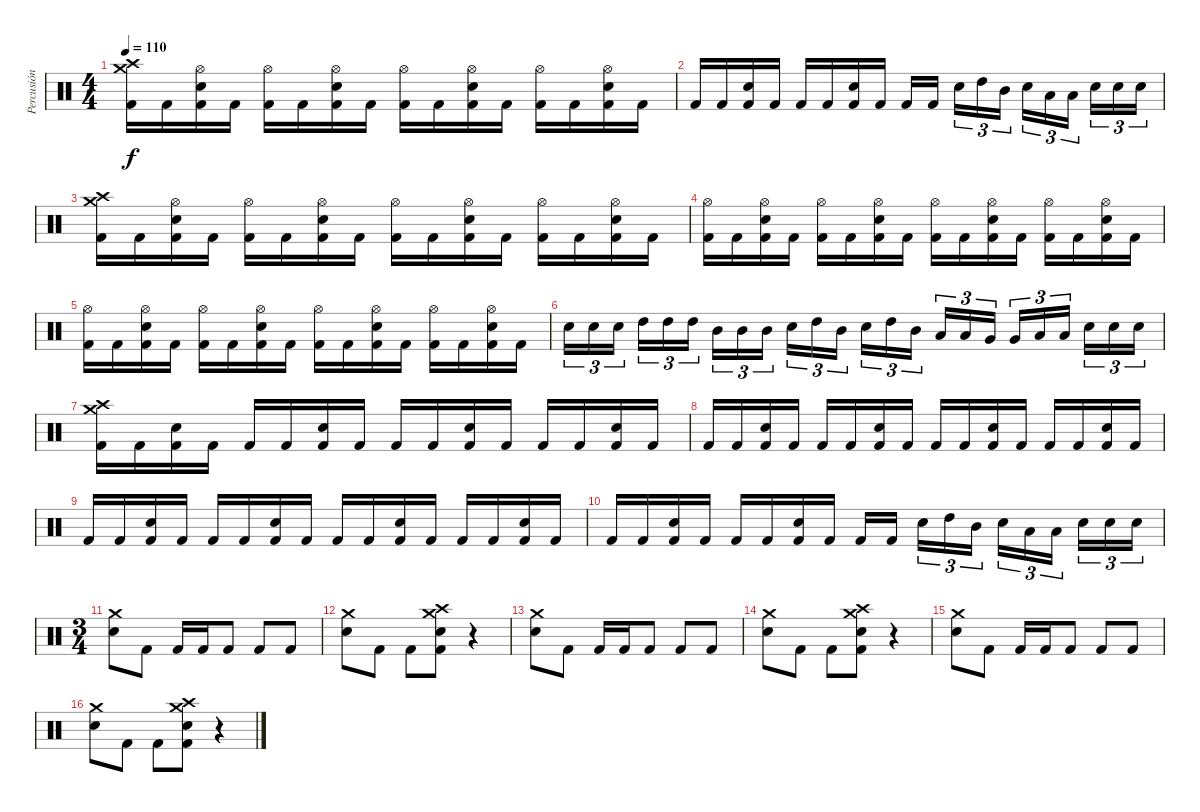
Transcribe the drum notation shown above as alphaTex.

\track ("Percusión" "Percusión") {instrument percussion}
\staff {score}
\articulation defaults
\ts (4 4)
\tempo 110
\clef neutral
\ks c
("Crash high (hit)" "Crash medium (hit)" "Kick (hit) 2").16{dy f} "Kick (hit) 2".16 ("Hi-Hat (open)" "Electric Snare (hit)" "Kick (hit) 2").16 "Kick (hit) 2".16 ("Hi-Hat (open)" "Kick (hit) 2").16 "Kick (hit) 2".16 ("Hi-Hat (open)" "Electric Snare (hit)" "Kick (hit) 2").16 "Kick (hit) 2".16 ("Hi-Hat (open)" "Kick (hit) 2").16 "Kick (hit) 2".16 ("Hi-Hat (open)" "Electric Snare (hit)" "Kick (hit) 2").16 "Kick (hit) 2".16 ("Hi-Hat (open)" "Kick (hit) 2").16 "Kick (hit) 2".16 ("Hi-Hat (open)" "Electric Snare (hit)" "Kick (hit) 2").16 "Kick (hit) 2".16 |
"Kick (hit) 2".16 "Kick (hit) 2".16 ("Electric Snare (hit)" "Kick (hit) 2").16 "Kick (hit) 2".16 "Kick (hit) 2".16 "Kick (hit) 2".16 ("Electric Snare (hit)" "Kick (hit) 2").16 "Kick (hit) 2".16 "Kick (hit) 2".16 "Kick (hit) 2".16 "Electric Snare (hit)".16{tu (3 2)} "High Tom (hit)".16{tu (3 2)} "Mid Tom (hit)".16{tu (3 2)} "Electric Snare (hit)".16{tu (3 2)} "Low Tom (hit)".16{tu (3 2)} "Low Tom (hit)".16{tu (3 2)} "Electric Snare (hit)".16{tu (3 2)} "Electric Snare (hit)".16{tu (3 2)} "Electric Snare (hit)".16{tu (3 2)} |
("Crash high (hit)" "Crash medium (hit)" "Kick (hit) 2").16 "Kick (hit) 2".16 ("Hi-Hat (open)" "Electric Snare (hit)" "Kick (hit) 2").16 "Kick (hit) 2".16 ("Hi-Hat (open)" "Kick (hit) 2").16 "Kick (hit) 2".16 ("Hi-Hat (open)" "Electric Snare (hit)" "Kick (hit) 2").16 "Kick (hit) 2".16 ("Hi-Hat (open)" "Kick (hit) 2").16 "Kick (hit) 2".16 ("Hi-Hat (open)" "Electric Snare (hit)" "Kick (hit) 2").16 "Kick (hit) 2".16 ("Hi-Hat (open)" "Kick (hit) 2").16 "Kick (hit) 2".16 ("Hi-Hat (open)" "Electric Snare (hit)" "Kick (hit) 2").16 "Kick (hit) 2".16 |
("Hi-Hat (open)" "Kick (hit) 2").16 "Kick (hit) 2".16 ("Hi-Hat (open)" "Electric Snare (hit)" "Kick (hit) 2").16 "Kick (hit) 2".16 ("Hi-Hat (open)" "Kick (hit) 2").16 "Kick (hit) 2".16 ("Hi-Hat (open)" "Electric Snare (hit)" "Kick (hit) 2").16 "Kick (hit) 2".16 ("Hi-Hat (open)" "Kick (hit) 2").16 "Kick (hit) 2".16 ("Hi-Hat (open)" "Electric Snare (hit)" "Kick (hit) 2").16 "Kick (hit) 2".16 ("Hi-Hat (open)" "Kick (hit) 2").16 "Kick (hit) 2".16 ("Hi-Hat (open)" "Electric Snare (hit)" "Kick (hit) 2").16 "Kick (hit) 2".16 |
("Hi-Hat (open)" "Kick (hit) 2").16 "Kick (hit) 2".16 ("Hi-Hat (open)" "Electric Snare (hit)" "Kick (hit) 2").16 "Kick (hit) 2".16 ("Hi-Hat (open)" "Kick (hit) 2").16 "Kick (hit) 2".16 ("Hi-Hat (open)" "Electric Snare (hit)" "Kick (hit) 2").16 "Kick (hit) 2".16 ("Hi-Hat (open)" "Kick (hit) 2").16 "Kick (hit) 2".16 ("Hi-Hat (open)" "Electric Snare (hit)" "Kick (hit) 2").16 "Kick (hit) 2".16 ("Hi-Hat (open)" "Kick (hit) 2").16 "Kick (hit) 2".16 ("Hi-Hat (open)" "Electric Snare (hit)" "Kick (hit) 2").16 "Kick (hit) 2".16 |
"Electric Snare (hit)".16{tu (3 2)} "Electric Snare (hit)".16{tu (3 2)} "Electric Snare (hit)".16{tu (3 2)} "High Tom (hit)".16{tu (3 2)} "High Tom (hit)".16{tu (3 2)} "High Tom (hit)".16{tu (3 2)} "Mid Tom (hit)".16{tu (3 2)} "Mid Tom (hit)".16{tu (3 2)} "Mid Tom (hit)".16{tu (3 2)} "Electric Snare (hit)".16{tu (3 2)} "High Tom (hit)".16{tu (3 2)} "Mid Tom (hit)".16{tu (3 2)} "Electric Snare (hit)".16{tu (3 2)} "High Tom (hit)".16{tu (3 2)} "Mid Tom (hit)".16{tu (3 2)} "Low Tom (hit)".16{tu (3 2)} "Low Tom (hit)".16{tu (3 2)} "Very Low Tom (hit)".16{tu (3 2)} "Very Low Tom (hit)".16{tu (3 2)} "Low Floor Tom (hit)".16{tu (3 2)} "Low Floor Tom (hit)".16{tu (3 2)} "Electric Snare (hit)".16{tu (3 2)} "Electric Snare (hit)".16{tu (3 2)} "Electric Snare (hit)".16{tu (3 2)} |
("Crash high (hit)" "Crash medium (hit)" "Kick (hit) 2").16 "Kick (hit) 2".16 ("Electric Snare (hit)" "Kick (hit) 2").16 "Kick (hit) 2".16 "Kick (hit) 2".16 "Kick (hit) 2".16 ("Electric Snare (hit)" "Kick (hit) 2").16 "Kick (hit) 2".16 "Kick (hit) 2".16 "Kick (hit) 2".16 ("Electric Snare (hit)" "Kick (hit) 2").16 "Kick (hit) 2".16 "Kick (hit) 2".16 "Kick (hit) 2".16 ("Electric Snare (hit)" "Kick (hit) 2").16 "Kick (hit) 2".16 |
"Kick (hit) 2".16 "Kick (hit) 2".16 ("Electric Snare (hit)" "Kick (hit) 2").16 "Kick (hit) 2".16 "Kick (hit) 2".16 "Kick (hit) 2".16 ("Electric Snare (hit)" "Kick (hit) 2").16 "Kick (hit) 2".16 "Kick (hit) 2".16 "Kick (hit) 2".16 ("Electric Snare (hit)" "Kick (hit) 2").16 "Kick (hit) 2".16 "Kick (hit) 2".16 "Kick (hit) 2".16 ("Electric Snare (hit)" "Kick (hit) 2").16 "Kick (hit) 2".16 |
"Kick (hit) 2".16 "Kick (hit) 2".16 ("Electric Snare (hit)" "Kick (hit) 2").16 "Kick (hit) 2".16 "Kick (hit) 2".16 "Kick (hit) 2".16 ("Electric Snare (hit)" "Kick (hit) 2").16 "Kick (hit) 2".16 "Kick (hit) 2".16 "Kick (hit) 2".16 ("Electric Snare (hit)" "Kick (hit) 2").16 "Kick (hit) 2".16 "Kick (hit) 2".16 "Kick (hit) 2".16 ("Electric Snare (hit)" "Kick (hit) 2").16 "Kick (hit) 2".16 |
"Kick (hit) 2".16 "Kick (hit) 2".16 ("Electric Snare (hit)" "Kick (hit) 2").16 "Kick (hit) 2".16 "Kick (hit) 2".16 "Kick (hit) 2".16 ("Electric Snare (hit)" "Kick (hit) 2").16 "Kick (hit) 2".16 "Kick (hit) 2".16 "Kick (hit) 2".16 "Electric Snare (hit)".16{tu (3 2)} "High Tom (hit)".16{tu (3 2)} "Mid Tom (hit)".16{tu (3 2)} "Electric Snare (hit)".16{tu (3 2)} "Low Tom (hit)".16{tu (3 2)} "Low Tom (hit)".16{tu (3 2)} "Electric Snare (hit)".16{tu (3 2)} "Electric Snare (hit)".16{tu (3 2)} "Electric Snare (hit)".16{tu (3 2)} |
\ts (3 4)
("Crash medium (hit)" "Electric Snare (hit)").8 "Kick (hit) 2".8 "Kick (hit) 2".16 "Kick (hit) 2".16 "Kick (hit) 2".8 "Kick (hit) 2".8 "Kick (hit) 2".8 |
("Crash medium (hit)" "Electric Snare (hit)").8 "Kick (hit) 2".8 "Kick (hit) 2".8 ("Crash high (hit)" "Crash medium (hit)" "Electric Snare (hit)" "Kick (hit) 2").8 r.4 |
("Crash medium (hit)" "Electric Snare (hit)").8 "Kick (hit) 2".8 "Kick (hit) 2".16 "Kick (hit) 2".16 "Kick (hit) 2".8 "Kick (hit) 2".8 "Kick (hit) 2".8 |
("Crash medium (hit)" "Electric Snare (hit)").8 "Kick (hit) 2".8 "Kick (hit) 2".8 ("Crash high (hit)" "Crash medium (hit)" "Electric Snare (hit)" "Kick (hit) 2").8 r.4 |
("Crash medium (hit)" "Electric Snare (hit)").8 "Kick (hit) 2".8 "Kick (hit) 2".16 "Kick (hit) 2".16 "Kick (hit) 2".8 "Kick (hit) 2".8 "Kick (hit) 2".8 |
("Crash medium (hit)" "Electric Snare (hit)").8 "Kick (hit) 2".8 "Kick (hit) 2".8 ("Crash high (hit)" "Crash medium (hit)" "Electric Snare (hit)" "Kick (hit) 2").8 r.4
